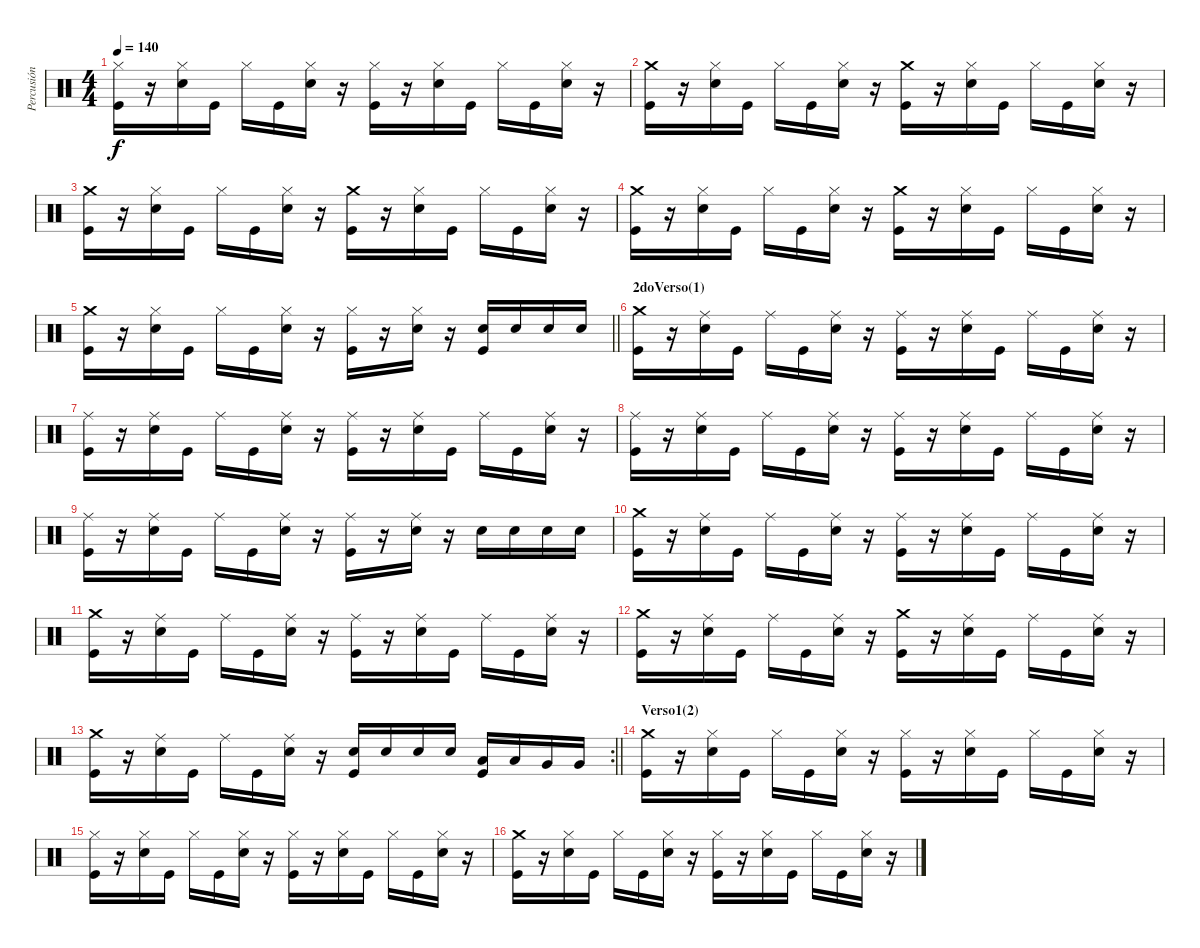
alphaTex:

\track ("Percusión" "Percusión") {instrument percussion}
\staff {score}
\articulation defaults
\ts (4 4)
\tempo 140
\clef neutral
\ks c
("Hi-Hat (closed)" "Kick (hit)").16{dy f} r.16 ("Hi-Hat (closed)" "Snare (hit) 2").16 "Kick (hit)".16 "Hi-Hat (closed)".16 "Kick (hit)".16 ("Hi-Hat (closed)" "Snare (hit) 2").16 r.16 ("Hi-Hat (closed)" "Kick (hit)").16 r.16 ("Hi-Hat (closed)" "Snare (hit) 2").16 "Kick (hit)".16 "Hi-Hat (closed)".16 "Kick (hit)".16 ("Hi-Hat (closed)" "Snare (hit) 2").16 r.16 |
("Crash medium (hit)" "Kick (hit)").16 r.16 ("Hi-Hat (closed)" "Snare (hit) 2").16 "Kick (hit)".16 "Hi-Hat (closed)".16 "Kick (hit)".16 ("Hi-Hat (closed)" "Snare (hit) 2").16 r.16 ("Crash medium (hit)" "Kick (hit)").16 r.16 ("Hi-Hat (closed)" "Snare (hit) 2").16 "Kick (hit)".16 "Hi-Hat (closed)".16 "Kick (hit)".16 ("Hi-Hat (closed)" "Snare (hit) 2").16 r.16 |
("Crash medium (hit)" "Kick (hit)").16 r.16 ("Hi-Hat (closed)" "Snare (hit) 2").16 "Kick (hit)".16 "Hi-Hat (closed)".16 "Kick (hit)".16 ("Hi-Hat (closed)" "Snare (hit) 2").16 r.16 ("Crash medium (hit)" "Kick (hit)").16 r.16 ("Hi-Hat (closed)" "Snare (hit) 2").16 "Kick (hit)".16 "Hi-Hat (closed)".16 "Kick (hit)".16 ("Hi-Hat (closed)" "Snare (hit) 2").16 r.16 |
("Crash medium (hit)" "Kick (hit)").16 r.16 ("Hi-Hat (closed)" "Snare (hit) 2").16 "Kick (hit)".16 "Hi-Hat (closed)".16 "Kick (hit)".16 ("Hi-Hat (closed)" "Snare (hit) 2").16 r.16 ("Crash medium (hit)" "Kick (hit)").16 r.16 ("Hi-Hat (closed)" "Snare (hit) 2").16 "Kick (hit)".16 "Hi-Hat (closed)".16 "Kick (hit)".16 ("Hi-Hat (closed)" "Snare (hit) 2").16 r.16 |
\barLineRight lightlight
("Crash medium (hit)" "Kick (hit)").16 r.16 ("Hi-Hat (closed)" "Snare (hit) 2").16 "Kick (hit)".16 "Hi-Hat (closed)".16 "Kick (hit)".16 ("Hi-Hat (closed)" "Snare (hit) 2").16 r.16 ("Hi-Hat (closed)" "Kick (hit)").16 r.16 ("Hi-Hat (closed)" "Snare (hit) 2").16 r.16 ("Snare (hit) 2" "Kick (hit)").16 "Snare (hit) 2".16 "Snare (hit) 2".16 "Snare (hit) 2".16 |
\section ("" "2doVerso(1)")
("Crash medium (hit)" "Kick (hit)").16 r.16 ("Ride (middle)" "Snare (hit) 2").16 "Kick (hit)".16 "Ride (middle)".16 "Kick (hit)".16 ("Ride (middle)" "Snare (hit) 2").16 r.16 ("Ride (middle)" "Kick (hit)").16 r.16 ("Ride (middle)" "Snare (hit) 2").16 "Kick (hit)".16 "Ride (middle)".16 "Kick (hit)".16 ("Ride (middle)" "Snare (hit) 2").16 r.16 |
("Ride (middle)" "Kick (hit)").16 r.16 ("Ride (middle)" "Snare (hit) 2").16 "Kick (hit)".16 "Ride (middle)".16 "Kick (hit)".16 ("Ride (middle)" "Snare (hit) 2").16 r.16 ("Ride (middle)" "Kick (hit)").16 r.16 ("Ride (middle)" "Snare (hit) 2").16 "Kick (hit)".16 "Ride (middle)".16 "Kick (hit)".16 ("Ride (middle)" "Snare (hit) 2").16 r.16 |
("Ride (middle)" "Kick (hit)").16 r.16 ("Ride (middle)" "Snare (hit) 2").16 "Kick (hit)".16 "Ride (middle)".16 "Kick (hit)".16 ("Ride (middle)" "Snare (hit) 2").16 r.16 ("Ride (middle)" "Kick (hit)").16 r.16 ("Ride (middle)" "Snare (hit) 2").16 "Kick (hit)".16 "Ride (middle)".16 "Kick (hit)".16 ("Ride (middle)" "Snare (hit) 2").16 r.16 |
("Ride (middle)" "Kick (hit)").16 r.16 ("Ride (middle)" "Snare (hit) 2").16 "Kick (hit)".16 "Ride (middle)".16 "Kick (hit)".16 ("Ride (middle)" "Snare (hit) 2").16 r.16 ("Ride (middle)" "Kick (hit)").16 r.16 ("Ride (middle)" "Snare (hit) 2").16 r.16 "Snare (hit) 2".16 "Snare (hit) 2".16 "Snare (hit) 2".16 "Snare (hit) 2".16 |
("Crash medium (hit)" "Kick (hit)").16 r.16 ("Ride (middle)" "Snare (hit) 2").16 "Kick (hit)".16 "Ride (middle)".16 "Kick (hit)".16 ("Ride (middle)" "Snare (hit) 2").16 r.16 ("Ride (middle)" "Kick (hit)").16 r.16 ("Ride (middle)" "Snare (hit) 2").16 "Kick (hit)".16 "Ride (middle)".16 "Kick (hit)".16 ("Ride (middle)" "Snare (hit) 2").16 r.16 |
("Crash medium (hit)" "Kick (hit)").16 r.16 ("Ride (middle)" "Snare (hit) 2").16 "Kick (hit)".16 "Ride (middle)".16 "Kick (hit)".16 ("Ride (middle)" "Snare (hit) 2").16 r.16 ("Ride (middle)" "Kick (hit)").16 r.16 ("Ride (middle)" "Snare (hit) 2").16 "Kick (hit)".16 "Ride (middle)".16 "Kick (hit)".16 ("Ride (middle)" "Snare (hit) 2").16 r.16 |
("Crash medium (hit)" "Kick (hit)").16 r.16 ("Ride (middle)" "Snare (hit) 2").16 "Kick (hit)".16 "Ride (middle)".16 "Kick (hit)".16 ("Ride (middle)" "Snare (hit) 2").16 r.16 ("Crash medium (hit)" "Kick (hit)").16 r.16 ("Ride (middle)" "Snare (hit) 2").16 "Kick (hit)".16 "Ride (middle)".16 "Kick (hit)".16 ("Ride (middle)" "Snare (hit) 2").16 r.16 |
\rc 2
\barLineRight lightlight
("Crash medium (hit)" "Kick (hit)").16 r.16 ("Ride (middle)" "Snare (hit) 2").16 "Kick (hit)".16 "Ride (middle)".16 "Kick (hit)".16 ("Ride (middle)" "Snare (hit) 2").16 r.16 ("Snare (hit) 2" "Kick (hit)").16 "Snare (hit) 2".16 "Snare (hit) 2".16 "Snare (hit) 2".16 ("Low Tom (hit)" "Kick (hit)").16 "Low Tom (hit)".16 "Very Low Tom (hit)".16 "Very Low Tom (hit)".16 |
\section ("" "Verso1(2)")
("Crash medium (hit)" "Kick (hit)").16 r.16 ("Hi-Hat (closed)" "Snare (hit) 2").16 "Kick (hit)".16 "Hi-Hat (closed)".16 "Kick (hit)".16 ("Hi-Hat (closed)" "Snare (hit) 2").16 r.16 ("Hi-Hat (closed)" "Kick (hit)").16 r.16 ("Hi-Hat (closed)" "Snare (hit) 2").16 "Kick (hit)".16 "Hi-Hat (closed)".16 "Kick (hit)".16 ("Hi-Hat (closed)" "Snare (hit) 2").16 r.16 |
("Hi-Hat (closed)" "Kick (hit)").16 r.16 ("Hi-Hat (closed)" "Snare (hit) 2").16 "Kick (hit)".16 "Hi-Hat (closed)".16 "Kick (hit)".16 ("Hi-Hat (closed)" "Snare (hit) 2").16 r.16 ("Hi-Hat (closed)" "Kick (hit)").16 r.16 ("Hi-Hat (closed)" "Snare (hit) 2").16 "Kick (hit)".16 "Hi-Hat (closed)".16 "Kick (hit)".16 ("Hi-Hat (closed)" "Snare (hit) 2").16 r.16 |
("Crash medium (hit)" "Kick (hit)").16 r.16 ("Hi-Hat (closed)" "Snare (hit) 2").16 "Kick (hit)".16 "Hi-Hat (closed)".16 "Kick (hit)".16 ("Hi-Hat (closed)" "Snare (hit) 2").16 r.16 ("Hi-Hat (closed)" "Kick (hit)").16 r.16 ("Hi-Hat (closed)" "Snare (hit) 2").16 "Kick (hit)".16 "Hi-Hat (closed)".16 "Kick (hit)".16 ("Hi-Hat (closed)" "Snare (hit) 2").16 r.16
